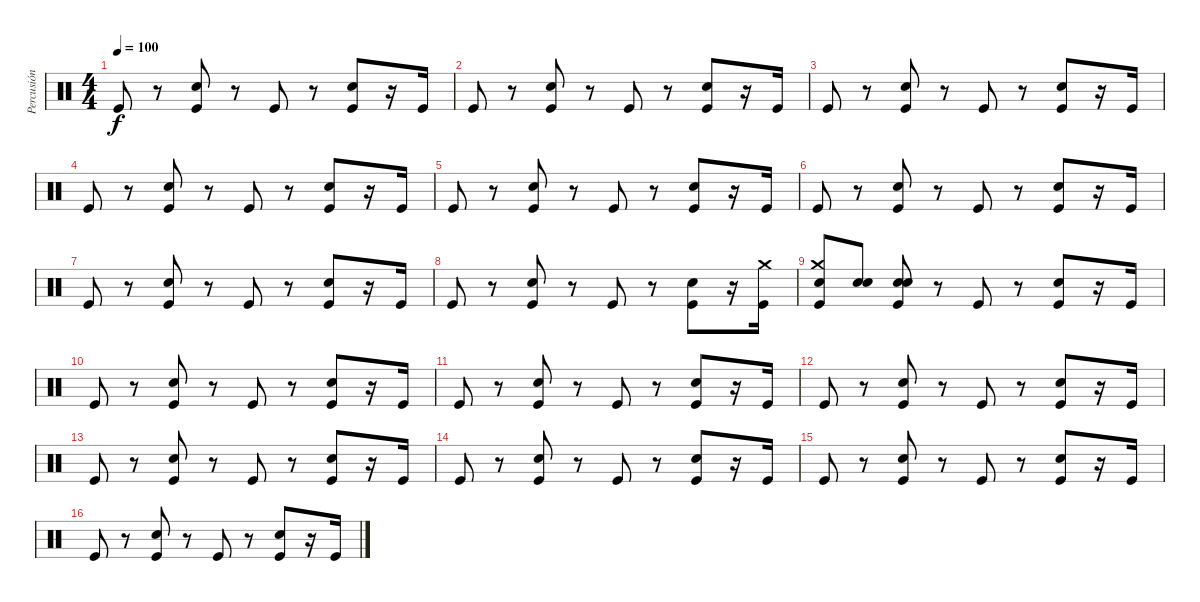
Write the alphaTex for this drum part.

\track ("Percusión" "Percusión") {instrument percussion}
\staff {score}
\articulation defaults
\ts (4 4)
\tempo 100
\clef neutral
\ks c "Kick (hit)".8{dy f}
r.8 ("Kick (hit)" "Electric Snare (hit)").8 r.8 "Kick (hit)".8 r.8 ("Kick (hit)" "Electric Snare (hit)").8 r.16 "Kick (hit)".16 |
"Kick (hit)".8 r.8 ("Kick (hit)" "Electric Snare (hit)").8 r.8 "Kick (hit)".8 r.8 ("Kick (hit)" "Electric Snare (hit)").8 r.16 "Kick (hit)".16 |
"Kick (hit)".8 r.8 ("Kick (hit)" "Electric Snare (hit)").8 r.8 "Kick (hit)".8 r.8 ("Kick (hit)" "Electric Snare (hit)").8 r.16 "Kick (hit)".16 |
"Kick (hit)".8 r.8 ("Kick (hit)" "Electric Snare (hit)").8 r.8 "Kick (hit)".8 r.8 ("Kick (hit)" "Electric Snare (hit)").8 r.16 "Kick (hit)".16 |
"Kick (hit)".8 r.8 ("Kick (hit)" "Electric Snare (hit)").8 r.8 "Kick (hit)".8 r.8 ("Kick (hit)" "Electric Snare (hit)").8 r.16 "Kick (hit)".16 |
"Kick (hit)".8 r.8 ("Kick (hit)" "Electric Snare (hit)").8 r.8 "Kick (hit)".8 r.8 ("Kick (hit)" "Electric Snare (hit)").8 r.16 "Kick (hit)".16 |
"Kick (hit)".8 r.8 ("Kick (hit)" "Electric Snare (hit)").8 r.8 "Kick (hit)".8 r.8 ("Kick (hit)" "Electric Snare (hit)").8 r.16 "Kick (hit)".16 |
"Kick (hit)".8 r.8 ("Kick (hit)" "Electric Snare (hit)").8 r.8 "Kick (hit)".8 r.8 ("Kick (hit)" "Electric Snare (hit)").8 r.16 ("Kick (hit)" "Crash medium (hit)").16 |
("Kick (hit)" "Snare (hit) 2" "Crash medium (hit)").8 ("Snare (hit) 2" "Snare (hit) 2").8 ("Kick (hit)" "Electric Snare (hit)" "Snare (hit) 2").8 r.8 "Kick (hit)".8 r.8 ("Kick (hit)" "Electric Snare (hit)").8 r.16 "Kick (hit)".16 |
"Kick (hit)".8 r.8 ("Kick (hit)" "Electric Snare (hit)").8 r.8 "Kick (hit)".8 r.8 ("Kick (hit)" "Electric Snare (hit)").8 r.16 "Kick (hit)".16 |
"Kick (hit)".8 r.8 ("Kick (hit)" "Electric Snare (hit)").8 r.8 "Kick (hit)".8 r.8 ("Kick (hit)" "Electric Snare (hit)").8 r.16 "Kick (hit)".16 |
"Kick (hit)".8 r.8 ("Kick (hit)" "Electric Snare (hit)").8 r.8 "Kick (hit)".8 r.8 ("Kick (hit)" "Electric Snare (hit)").8 r.16 "Kick (hit)".16 |
"Kick (hit)".8 r.8 ("Kick (hit)" "Electric Snare (hit)").8 r.8 "Kick (hit)".8 r.8 ("Kick (hit)" "Electric Snare (hit)").8 r.16 "Kick (hit)".16 |
"Kick (hit)".8 r.8 ("Kick (hit)" "Electric Snare (hit)").8 r.8 "Kick (hit)".8 r.8 ("Kick (hit)" "Electric Snare (hit)").8 r.16 "Kick (hit)".16 |
"Kick (hit)".8 r.8 ("Kick (hit)" "Electric Snare (hit)").8 r.8 "Kick (hit)".8 r.8 ("Kick (hit)" "Electric Snare (hit)").8 r.16 "Kick (hit)".16 |
"Kick (hit)".8 r.8 ("Kick (hit)" "Electric Snare (hit)").8 r.8 "Kick (hit)".8 r.8 ("Kick (hit)" "Electric Snare (hit)").8 r.16 "Kick (hit)".16
